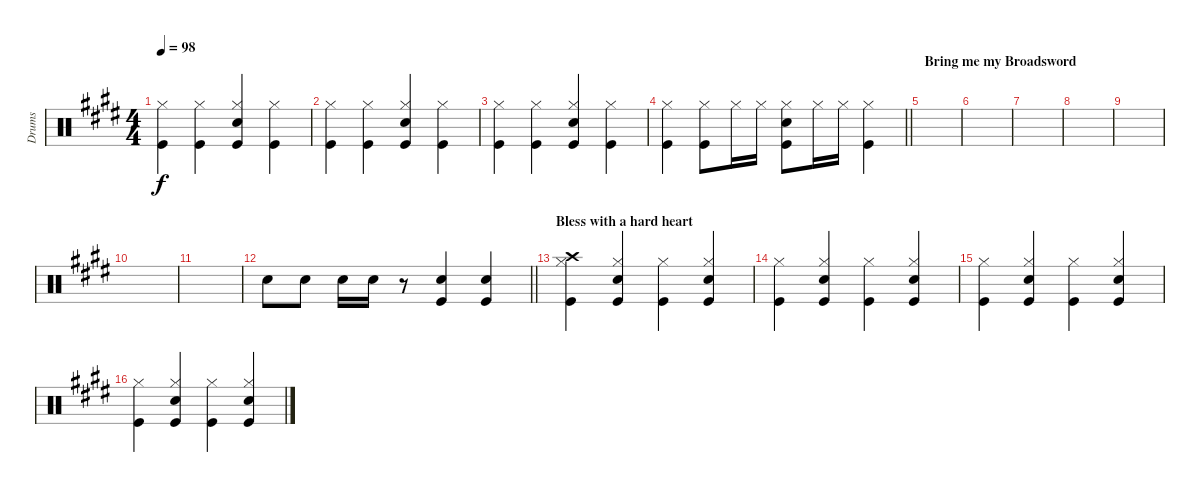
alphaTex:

\track ("Drums" "Drums") {instrument percussion}
\staff {score}
\articulation defaults
\ts (4 4)
\tempo 98
\clef neutral
\ks c#minor
("Kick (hit)" "Hi-Hat (closed)").4{dy f} ("Kick (hit)" "Hi-Hat (closed)").4 ("Kick (hit)" "Snare (hit) 2" "Hi-Hat (closed)").4 ("Kick (hit)" "Hi-Hat (closed)").4 |
("Kick (hit)" "Hi-Hat (closed)").4 ("Kick (hit)" "Hi-Hat (closed)").4 ("Kick (hit)" "Snare (hit) 2" "Hi-Hat (closed)").4 ("Kick (hit)" "Hi-Hat (closed)").4 |
("Kick (hit)" "Hi-Hat (closed)").4 ("Kick (hit)" "Hi-Hat (closed)").4 ("Kick (hit)" "Snare (hit) 2" "Hi-Hat (closed)").4 ("Kick (hit)" "Hi-Hat (closed)").4 |
\barLineRight lightlight
("Kick (hit)" "Hi-Hat (closed)").4 ("Kick (hit)" "Hi-Hat (closed)").8 "Hi-Hat (closed)".16 "Hi-Hat (closed)".16 ("Kick (hit)" "Snare (hit) 2" "Hi-Hat (closed)").8 "Hi-Hat (closed)".16 "Hi-Hat (closed)".16 ("Kick (hit)" "Hi-Hat (closed)").4 |
\section ("" "Bring me my Broadsword")
|
|
|
|
|
|
|
\barLineRight lightlight "Snare (hit) 2".8 "Snare (hit) 2".8 "Snare (hit) 2".16 "Snare (hit) 2".16
r.8 ("Kick (hit)" "Snare (hit) 2").4 ("Kick (hit)" "Snare (hit) 2").4 |
\section ("" "Bless with a hard heart")
("Kick (hit)" "Hi-Hat (closed)" "Crash high (hit)").4 ("Kick (hit)" "Snare (hit) 2" "Hi-Hat (closed)").4 ("Kick (hit)" "Hi-Hat (closed)").4 ("Kick (hit)" "Snare (hit) 2" "Hi-Hat (closed)").4 |
("Kick (hit)" "Hi-Hat (closed)").4 ("Kick (hit)" "Snare (hit) 2" "Hi-Hat (closed)").4 ("Kick (hit)" "Hi-Hat (closed)").4 ("Kick (hit)" "Snare (hit) 2" "Hi-Hat (closed)").4 |
("Kick (hit)" "Hi-Hat (closed)").4 ("Kick (hit)" "Snare (hit) 2" "Hi-Hat (closed)").4 ("Kick (hit)" "Hi-Hat (closed)").4 ("Kick (hit)" "Snare (hit) 2" "Hi-Hat (closed)").4 |
("Kick (hit)" "Hi-Hat (closed)").4 ("Kick (hit)" "Snare (hit) 2" "Hi-Hat (closed)").4 ("Kick (hit)" "Hi-Hat (closed)").4 ("Kick (hit)" "Snare (hit) 2" "Hi-Hat (closed)").4
